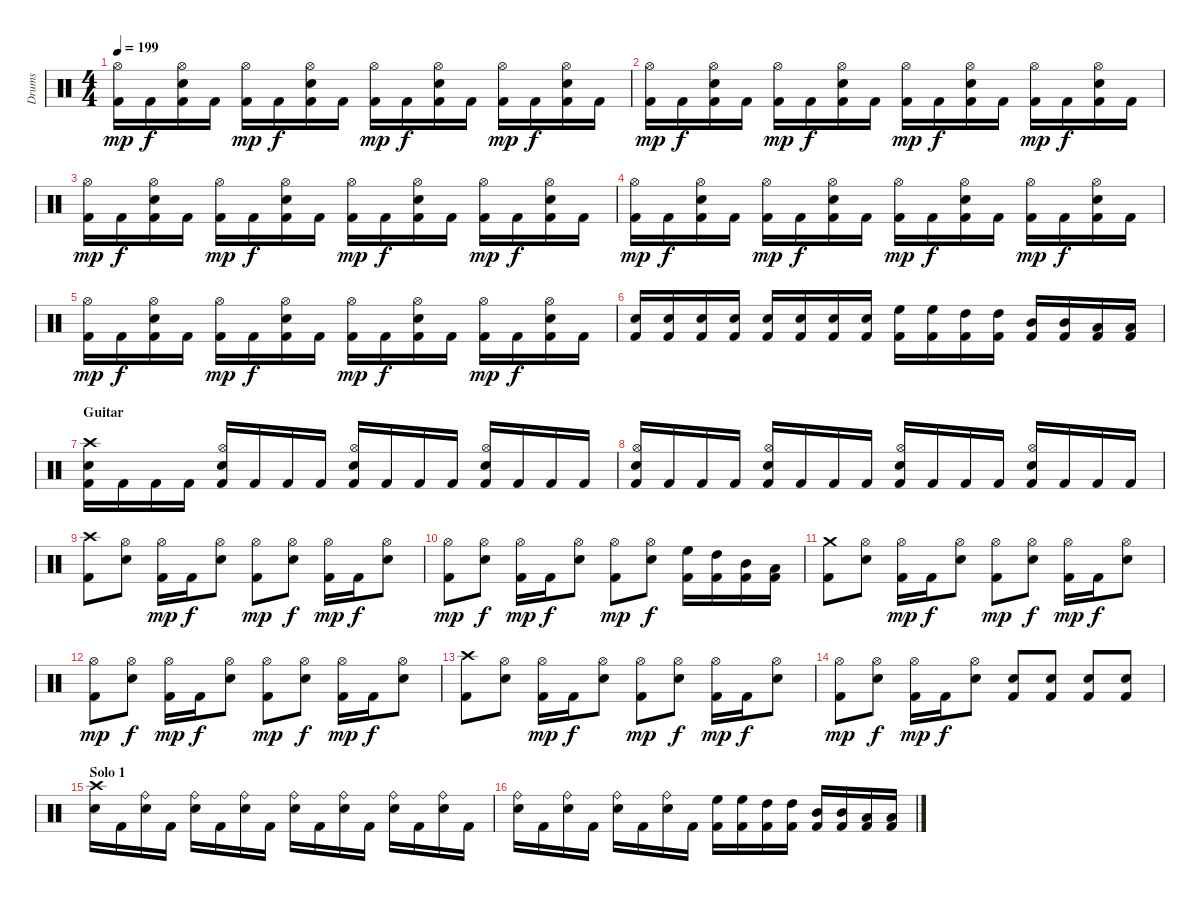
\track ("Drums" "Drums") {instrument percussion}
\staff {score}
\articulation defaults
\ts (4 4)
\tempo 199
\clef neutral
\ks c
("Kick (hit) 2" "Hi-Hat (open)").16{dy mp} "Kick (hit) 2".16{dy f} ("Kick (hit) 2" "Snare (hit) 2" "Hi-Hat (open)").16 "Kick (hit) 2".16 ("Kick (hit) 2" "Hi-Hat (open)").16{dy mp} "Kick (hit) 2".16{dy f} ("Kick (hit) 2" "Snare (hit) 2" "Hi-Hat (open)").16 "Kick (hit) 2".16 ("Kick (hit) 2" "Hi-Hat (open)").16{dy mp} "Kick (hit) 2".16{dy f} ("Kick (hit) 2" "Snare (hit) 2" "Hi-Hat (open)").16 "Kick (hit) 2".16 ("Kick (hit) 2" "Hi-Hat (open)").16{dy mp} "Kick (hit) 2".16{dy f} ("Kick (hit) 2" "Snare (hit) 2" "Hi-Hat (open)").16 "Kick (hit) 2".16 |
("Kick (hit) 2" "Hi-Hat (open)").16{dy mp} "Kick (hit) 2".16{dy f} ("Kick (hit) 2" "Snare (hit) 2" "Hi-Hat (open)").16 "Kick (hit) 2".16 ("Kick (hit) 2" "Hi-Hat (open)").16{dy mp} "Kick (hit) 2".16{dy f} ("Kick (hit) 2" "Snare (hit) 2" "Hi-Hat (open)").16 "Kick (hit) 2".16 ("Kick (hit) 2" "Hi-Hat (open)").16{dy mp} "Kick (hit) 2".16{dy f} ("Kick (hit) 2" "Snare (hit) 2" "Hi-Hat (open)").16 "Kick (hit) 2".16 ("Kick (hit) 2" "Hi-Hat (open)").16{dy mp} "Kick (hit) 2".16{dy f} ("Kick (hit) 2" "Snare (hit) 2" "Hi-Hat (open)").16 "Kick (hit) 2".16 |
("Kick (hit) 2" "Hi-Hat (open)").16{dy mp} "Kick (hit) 2".16{dy f} ("Kick (hit) 2" "Snare (hit) 2" "Hi-Hat (open)").16 "Kick (hit) 2".16 ("Kick (hit) 2" "Hi-Hat (open)").16{dy mp} "Kick (hit) 2".16{dy f} ("Kick (hit) 2" "Snare (hit) 2" "Hi-Hat (open)").16 "Kick (hit) 2".16 ("Kick (hit) 2" "Hi-Hat (open)").16{dy mp} "Kick (hit) 2".16{dy f} ("Kick (hit) 2" "Snare (hit) 2" "Hi-Hat (open)").16 "Kick (hit) 2".16 ("Kick (hit) 2" "Hi-Hat (open)").16{dy mp} "Kick (hit) 2".16{dy f} ("Kick (hit) 2" "Snare (hit) 2" "Hi-Hat (open)").16 "Kick (hit) 2".16 |
("Kick (hit) 2" "Hi-Hat (open)").16{dy mp} "Kick (hit) 2".16{dy f} ("Kick (hit) 2" "Snare (hit) 2" "Hi-Hat (open)").16 "Kick (hit) 2".16 ("Kick (hit) 2" "Hi-Hat (open)").16{dy mp} "Kick (hit) 2".16{dy f} ("Kick (hit) 2" "Snare (hit) 2" "Hi-Hat (open)").16 "Kick (hit) 2".16 ("Kick (hit) 2" "Hi-Hat (open)").16{dy mp} "Kick (hit) 2".16{dy f} ("Kick (hit) 2" "Snare (hit) 2" "Hi-Hat (open)").16 "Kick (hit) 2".16 ("Kick (hit) 2" "Hi-Hat (open)").16{dy mp} "Kick (hit) 2".16{dy f} ("Kick (hit) 2" "Snare (hit) 2" "Hi-Hat (open)").16 "Kick (hit) 2".16 |
("Kick (hit) 2" "Hi-Hat (open)").16{dy mp} "Kick (hit) 2".16{dy f} ("Kick (hit) 2" "Snare (hit) 2" "Hi-Hat (open)").16 "Kick (hit) 2".16 ("Kick (hit) 2" "Hi-Hat (open)").16{dy mp} "Kick (hit) 2".16{dy f} ("Kick (hit) 2" "Snare (hit) 2" "Hi-Hat (open)").16 "Kick (hit) 2".16 ("Kick (hit) 2" "Hi-Hat (open)").16{dy mp} "Kick (hit) 2".16{dy f} ("Kick (hit) 2" "Snare (hit) 2" "Hi-Hat (open)").16 "Kick (hit) 2".16 ("Kick (hit) 2" "Hi-Hat (open)").16{dy mp} "Kick (hit) 2".16{dy f} ("Kick (hit) 2" "Snare (hit) 2" "Hi-Hat (open)").16 "Kick (hit) 2".16 |
("Kick (hit) 2" "Snare (hit) 2").16 ("Kick (hit) 2" "Snare (hit) 2").16 ("Kick (hit) 2" "Snare (hit) 2").16 ("Kick (hit) 2" "Snare (hit) 2").16 ("Kick (hit) 2" "Snare (hit) 2").16 ("Kick (hit) 2" "Snare (hit) 2").16 ("Kick (hit) 2" "Snare (hit) 2").16 ("Kick (hit) 2" "Snare (hit) 2").16 ("Kick (hit) 2" "High Floor Tom (hit)").16 ("Kick (hit) 2" "High Floor Tom (hit)").16 ("Kick (hit) 2" "High Tom (hit)").16 ("Kick (hit) 2" "High Tom (hit)").16 ("Kick (hit) 2" "Mid Tom (hit)").16 ("Kick (hit) 2" "Mid Tom (hit)").16 ("Kick (hit) 2" "Low Tom (hit)").16 ("Kick (hit) 2" "Low Tom (hit)").16 |
\section ("" "Guitar")
("Kick (hit) 2" "Snare (hit) 2" "Crash high (hit)").16 "Kick (hit) 2".16 "Kick (hit) 2".16 "Kick (hit) 2".16 ("Kick (hit) 2" "Snare (hit) 2" "Hi-Hat (open)").16 "Kick (hit) 2".16 "Kick (hit) 2".16 "Kick (hit) 2".16 ("Kick (hit) 2" "Snare (hit) 2" "Hi-Hat (open)").16 "Kick (hit) 2".16 "Kick (hit) 2".16 "Kick (hit) 2".16 ("Kick (hit) 2" "Snare (hit) 2" "Hi-Hat (open)").16 "Kick (hit) 2".16 "Kick (hit) 2".16 "Kick (hit) 2".16 |
("Kick (hit) 2" "Snare (hit) 2" "Hi-Hat (open)").16 "Kick (hit) 2".16 "Kick (hit) 2".16 "Kick (hit) 2".16 ("Kick (hit) 2" "Snare (hit) 2" "Hi-Hat (open)").16 "Kick (hit) 2".16 "Kick (hit) 2".16 "Kick (hit) 2".16 ("Kick (hit) 2" "Snare (hit) 2" "Hi-Hat (open)").16 "Kick (hit) 2".16 "Kick (hit) 2".16 "Kick (hit) 2".16 ("Kick (hit) 2" "Snare (hit) 2" "Hi-Hat (open)").16 "Kick (hit) 2".16 "Kick (hit) 2".16 "Kick (hit) 2".16 |
("Kick (hit) 2" "Crash high (hit)").8 ("Snare (hit) 2" "Hi-Hat (open)").8 ("Kick (hit) 2" "Hi-Hat (open)").16{dy mp} "Kick (hit) 2".16{dy f} ("Snare (hit) 2" "Hi-Hat (open)").8 ("Kick (hit) 2" "Hi-Hat (open)").8{dy mp} ("Snare (hit) 2" "Hi-Hat (open)").8{dy f} ("Kick (hit) 2" "Hi-Hat (open)").16{dy mp} "Kick (hit) 2".16{dy f} ("Snare (hit) 2" "Hi-Hat (open)").8 |
("Kick (hit) 2" "Hi-Hat (open)").8{dy mp} ("Snare (hit) 2" "Hi-Hat (open)").8{dy f} ("Kick (hit) 2" "Hi-Hat (open)").16{dy mp} "Kick (hit) 2".16{dy f} ("Snare (hit) 2" "Hi-Hat (open)").8 ("Kick (hit) 2" "Hi-Hat (open)").8{dy mp} ("Snare (hit) 2" "Hi-Hat (open)").8{dy f} ("Kick (hit) 2" "High Floor Tom (hit)").16 ("Kick (hit) 2" "High Tom (hit)").16 ("Kick (hit) 2" "Mid Tom (hit)").16 ("Kick (hit) 2" "Low Tom (hit)").16 |
("Kick (hit) 2" "Crash medium (hit)").8 ("Snare (hit) 2" "Hi-Hat (open)").8 ("Kick (hit) 2" "Hi-Hat (open)").16{dy mp} "Kick (hit) 2".16{dy f} ("Snare (hit) 2" "Hi-Hat (open)").8 ("Kick (hit) 2" "Hi-Hat (open)").8{dy mp} ("Snare (hit) 2" "Hi-Hat (open)").8{dy f} ("Kick (hit) 2" "Hi-Hat (open)").16{dy mp} "Kick (hit) 2".16{dy f} ("Snare (hit) 2" "Hi-Hat (open)").8 |
("Kick (hit) 2" "Hi-Hat (open)").8{dy mp} ("Snare (hit) 2" "Hi-Hat (open)").8{dy f} ("Kick (hit) 2" "Hi-Hat (open)").16{dy mp} "Kick (hit) 2".16{dy f} ("Snare (hit) 2" "Hi-Hat (open)").8 ("Kick (hit) 2" "Hi-Hat (open)").8{dy mp} ("Snare (hit) 2" "Hi-Hat (open)").8{dy f} ("Kick (hit) 2" "Hi-Hat (open)").16{dy mp} "Kick (hit) 2".16{dy f} ("Snare (hit) 2" "Hi-Hat (open)").8 |
("Kick (hit) 2" "Crash high (hit)").8 ("Snare (hit) 2" "Hi-Hat (open)").8 ("Kick (hit) 2" "Hi-Hat (open)").16{dy mp} "Kick (hit) 2".16{dy f} ("Snare (hit) 2" "Hi-Hat (open)").8 ("Kick (hit) 2" "Hi-Hat (open)").8{dy mp} ("Snare (hit) 2" "Hi-Hat (open)").8{dy f} ("Kick (hit) 2" "Hi-Hat (open)").16{dy mp} "Kick (hit) 2".16{dy f} ("Snare (hit) 2" "Hi-Hat (open)").8 |
("Kick (hit) 2" "Hi-Hat (open)").8{dy mp} ("Snare (hit) 2" "Hi-Hat (open)").8{dy f} ("Kick (hit) 2" "Hi-Hat (open)").16{dy mp} "Kick (hit) 2".16{dy f} ("Snare (hit) 2" "Hi-Hat (open)").8 ("Kick (hit) 2" "Snare (hit) 2").8 ("Kick (hit) 2" "Snare (hit) 2").8 ("Kick (hit) 2" "Snare (hit) 2").8 ("Kick (hit) 2" "Snare (hit) 2").8 |
\section ("" "Solo 1")
("Snare (hit) 2" "Crash high (hit)").16 "Kick (hit) 2".16 ("Snare (hit) 2" "Ride (bell)").16 "Kick (hit) 2".16 ("Snare (hit) 2" "Ride (bell)").16 "Kick (hit) 2".16 ("Snare (hit) 2" "Ride (bell)").16 "Kick (hit) 2".16 ("Snare (hit) 2" "Ride (bell)").16 "Kick (hit) 2".16 ("Snare (hit) 2" "Ride (bell)").16 "Kick (hit) 2".16 ("Snare (hit) 2" "Ride (bell)").16 "Kick (hit) 2".16 ("Snare (hit) 2" "Ride (bell)").16 "Kick (hit) 2".16 |
("Snare (hit) 2" "Ride (bell)").16 "Kick (hit) 2".16 ("Snare (hit) 2" "Ride (bell)").16 "Kick (hit) 2".16 ("Snare (hit) 2" "Ride (bell)").16 "Kick (hit) 2".16 ("Snare (hit) 2" "Ride (bell)").16 "Kick (hit) 2".16 ("Kick (hit) 2" "High Floor Tom (hit)").16 ("Kick (hit) 2" "High Floor Tom (hit)").16 ("Kick (hit) 2" "High Tom (hit)").16 ("Kick (hit) 2" "High Tom (hit)").16 ("Kick (hit) 2" "Mid Tom (hit)").16 ("Kick (hit) 2" "Mid Tom (hit)").16 ("Kick (hit) 2" "Low Tom (hit)").16 ("Kick (hit) 2" "Low Tom (hit)").16
